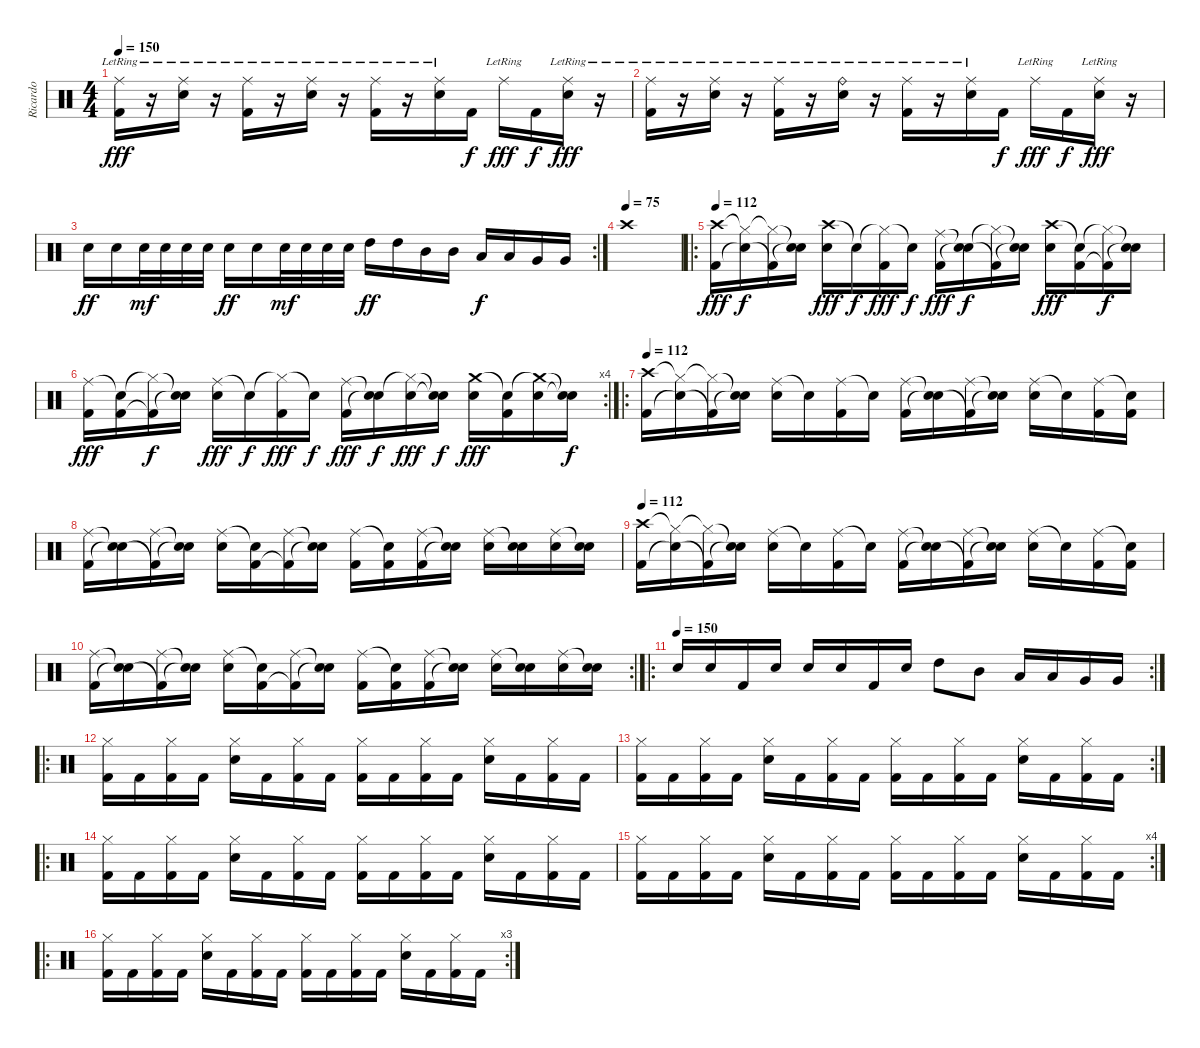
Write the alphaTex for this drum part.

\track ("Ricardo" "Ricardo") {instrument percussion}
\staff {score}
\articulation defaults
\ts (4 4)
\tempo 150
\clef neutral
\ks c
("Ride (middle)"{lr} "Kick (hit) 2").16{dy fff} r.16 ("Ride (middle)"{lr} "Snare (hit) 2").16 r.16 ("Ride (middle)"{lr} "Kick (hit) 2").16 r.16 ("Ride (middle)"{lr} "Snare (hit) 2").16 r.16 ("Ride (middle)"{lr} "Kick (hit) 2").16 r.16 ("Ride (middle)"{lr} "Snare (hit) 2").16 "Kick (hit) 2".16{dy f} "Ride (middle)"{lr}.16{dy fff} "Kick (hit) 2".16{dy f} ("Ride (middle)"{lr} "Snare (hit) 2").16{dy fff} r.16 |
("Ride (middle)"{lr} "Kick (hit) 2").16 r.16 ("Ride (middle)"{lr} "Snare (hit) 2").16 r.16 ("Ride (middle)"{lr} "Kick (hit) 2").16 r.16 ("Ride (bell)"{lr} "Snare (hit) 2").16 r.16 ("Ride (middle)"{lr} "Kick (hit) 2").16 r.16 ("Ride (middle)"{lr} "Snare (hit) 2").16 "Kick (hit) 2".16{dy f} "Ride (middle)"{lr}.16{dy fff} "Kick (hit) 2".16{dy f} ("Ride (middle)"{lr} "Snare (hit) 2").16{dy fff} r.16 |
\rc 2 "Snare (hit) 2".16{dy ff} "Snare (hit) 2".16 "Snare (hit) 2".32{dy mf} "Snare (hit) 2".32 "Snare (hit) 2".32 "Snare (hit) 2".32 "Snare (hit) 2".16{dy ff} "Snare (hit) 2".16 "Snare (hit) 2".32{dy mf} "Snare (hit) 2".32 "Snare (hit) 2".32 "Snare (hit) 2".32 "High Tom (hit)".16{dy ff} "High Tom (hit)".16 "Mid Tom (hit)".16 "Mid Tom (hit)".16 "Low Tom (hit)".16{dy f} "Low Tom (hit)".16 "Very Low Tom (hit)".16 "Very Low Tom (hit)".16
|
\tempo (75)
"Crash high (hit)".1 |
\ro
\tempo 112
("Crash high (hit)" "Kick (hit) 2").16{dy fff} ("Hi-Hat (closed)"{t} "Snare (hit)"{t}).16{dy f} ("Hi-Hat (closed)"{t} "Kick (hit) 2"{t}).16 ("Snare (hit)"{t} "Snare (hit)"{t}).16 ("Crash high (hit)" "Snare (hit) 2").16{dy fff} "Snare (hit)"{t}.16{dy f} ("Hi-Hat (closed)"{t} "Kick (hit) 2").16{dy fff} "Snare (hit)"{t}.16{dy f} ("Ride (middle)" "Kick (hit) 2").16{dy fff} ("Snare (hit)"{t} "Snare (hit)"{t}).16{dy f} ("Hi-Hat (closed)"{t} "Kick (hit) 2"{t}).16 ("Snare (hit)"{t} "Snare (hit)"{t}).16 ("Crash high (hit)" "Snare (hit) 2").16{dy fff} ("Snare (hit)"{t} "Kick (hit) 2").16 ("Hi-Hat (closed)"{t} "Kick (hit) 2"{t}).16{dy f} ("Snare (hit)"{t} "Snare (hit)"{t}).16 |
\rc 4
("Ride (middle)" "Kick (hit) 2").16{dy fff} ("Snare (hit)"{t} "Kick (hit) 2").16 ("Hi-Hat (closed)"{t} "Kick (hit) 2"{t}).16{dy f} ("Snare (hit)"{t} "Snare (hit)"{t}).16 ("Ride (middle)" "Snare (hit) 2").16{dy fff} "Snare (hit)"{t}.16{dy f} ("Hi-Hat (closed)"{t} "Kick (hit) 2").16{dy fff} "Snare (hit)"{t}.16{dy f} ("Ride (middle)" "Kick (hit) 2").16{dy fff} ("Snare (hit)"{t} "Snare (hit)"{t}).16{dy f} ("Hi-Hat (closed)"{t} "Snare (hit) 2").16{dy fff} ("Snare (hit)"{t} "Snare (hit)"{t}).16{dy f} ("Crash medium (hit)" "Snare (hit) 2").16{dy fff} ("Snare (hit)"{t} "Kick (hit) 2").16 ("Crash medium (hit)"{t} "Snare (hit) 2").16 ("Snare (hit)"{t} "Snare (hit)"{t}).16{dy f} |
\ro
\tempo 112
("Crash high (hit)" "Kick (hit) 2").16 ("Hi-Hat (closed)"{t} "Snare (hit)"{t}).16 ("Hi-Hat (closed)"{t} "Kick (hit) 2"{t}).16 ("Snare (hit)"{t} "Snare (hit)"{t}).16 ("Ride (middle)" "Snare (hit) 2").16 "Snare (hit)"{t}.16 ("Ride (middle)" "Kick (hit) 2").16 "Snare (hit)"{t}.16 ("Ride (middle)" "Kick (hit) 2").16 ("Snare (hit)"{t} "Snare (hit)"{t}).16 ("Ride (middle)" "Kick (hit) 2"{t}).16 ("Snare (hit)"{t} "Snare (hit)"{t}).16 ("Ride (middle)" "Snare (hit) 2").16 "Snare (hit)"{t}.16 ("Ride (middle)" "Kick (hit) 2").16 ("Snare (hit)"{t} "Kick (hit) 2").16 |
("Ride (middle)" "Kick (hit) 2").16 ("Snare (hit)"{t} "Snare (hit)"{t}).16 ("Ride (middle)" "Kick (hit) 2"{t}).16 ("Snare (hit)"{t} "Snare (hit)"{t}).16 ("Ride (middle)" "Snare (hit) 2").16 ("Snare (hit)"{t} "Kick (hit) 2").16 ("Ride (middle)" "Kick (hit) 2"{t}).16 ("Snare (hit)"{t} "Snare (hit)"{t}).16 ("Ride (middle)" "Kick (hit) 2").16 ("Snare (hit)"{t} "Kick (hit) 2").16 ("Ride (middle)" "Kick (hit) 2").16 ("Snare (hit)"{t} "Snare (hit)"{t}).16 ("Ride (middle)" "Snare (hit) 2").16 ("Snare (hit)"{t} "Snare (hit) 2").16 ("Ride (middle)" "Snare (hit) 2").16 ("Snare (hit)"{t} "Snare (hit) 2").16 |
\tempo 112
("Crash high (hit)" "Kick (hit) 2").16 ("Hi-Hat (closed)"{t} "Snare (hit)"{t}).16 ("Hi-Hat (closed)"{t} "Kick (hit) 2"{t}).16 ("Snare (hit)"{t} "Snare (hit)"{t}).16 ("Ride (middle)" "Snare (hit) 2").16 "Snare (hit)"{t}.16 ("Ride (middle)" "Kick (hit) 2").16 "Snare (hit)"{t}.16 ("Ride (middle)" "Kick (hit) 2").16 ("Snare (hit)"{t} "Snare (hit)"{t}).16 ("Ride (middle)" "Kick (hit) 2"{t}).16 ("Snare (hit)"{t} "Snare (hit)"{t}).16 ("Ride (middle)" "Snare (hit) 2").16 "Snare (hit)"{t}.16 ("Ride (middle)" "Kick (hit) 2").16 ("Snare (hit)"{t} "Kick (hit) 2").16 |
\rc 2
("Ride (middle)" "Kick (hit) 2").16 ("Snare (hit)"{t} "Snare (hit)"{t}).16 ("Ride (middle)" "Kick (hit) 2"{t}).16 ("Snare (hit)"{t} "Snare (hit)"{t}).16 ("Ride (middle)" "Snare (hit) 2").16 ("Snare (hit)"{t} "Kick (hit) 2").16 ("Ride (middle)" "Kick (hit) 2"{t}).16 ("Snare (hit)"{t} "Snare (hit)"{t}).16 ("Ride (middle)" "Kick (hit) 2").16 ("Snare (hit)"{t} "Kick (hit) 2").16 ("Ride (middle)" "Kick (hit) 2").16 ("Snare (hit)"{t} "Snare (hit)"{t}).16 ("Ride (middle)" "Snare (hit) 2").16 ("Snare (hit)"{t} "Snare (hit) 2").16 ("Ride (middle)" "Snare (hit) 2").16 ("Snare (hit)"{t} "Snare (hit) 2").16 |
\ro
\rc 2
\tempo (150)
"Snare (hit) 2".16 "Snare (hit) 2".16 "Kick (hit) 2".16 "Snare (hit) 2".16 "Snare (hit) 2".16 "Snare (hit) 2".16 "Kick (hit) 2".16 "Snare (hit) 2".16 "High Tom (hit)".8 "Mid Tom (hit)".8 "Low Tom (hit)".16 "Low Tom (hit)".16 "Very Low Tom (hit)".16 "Very Low Tom (hit)".16 |
\ro
("Hi-Hat (closed)" "Kick (hit) 2").16 "Kick (hit) 2".16 ("Hi-Hat (closed)" "Kick (hit) 2").16 "Kick (hit) 2".16 ("Hi-Hat (closed)" "Snare (hit) 2").16 "Kick (hit) 2".16 ("Hi-Hat (closed)" "Kick (hit) 2").16 "Kick (hit) 2".16 ("Hi-Hat (closed)" "Kick (hit) 2").16 "Kick (hit) 2".16 ("Hi-Hat (closed)" "Kick (hit) 2").16 "Kick (hit) 2".16 ("Hi-Hat (closed)" "Snare (hit) 2").16 "Kick (hit) 2".16 ("Hi-Hat (closed)" "Kick (hit) 2").16 "Kick (hit) 2".16 |
\rc 2
("Hi-Hat (closed)" "Kick (hit) 2").16 "Kick (hit) 2".16 ("Hi-Hat (closed)" "Kick (hit) 2").16 "Kick (hit) 2".16 ("Hi-Hat (closed)" "Snare (hit) 2").16 "Kick (hit) 2".16 ("Hi-Hat (closed)" "Kick (hit) 2").16 "Kick (hit) 2".16 ("Hi-Hat (closed)" "Kick (hit) 2").16 "Kick (hit) 2".16 ("Hi-Hat (closed)" "Kick (hit) 2").16 "Kick (hit) 2".16 ("Hi-Hat (closed)" "Snare (hit) 2").16 "Kick (hit) 2".16 ("Hi-Hat (closed)" "Kick (hit) 2").16 "Kick (hit) 2".16 |
\ro
("Hi-Hat (closed)" "Kick (hit) 2").16 "Kick (hit) 2".16 ("Hi-Hat (closed)" "Kick (hit) 2").16 "Kick (hit) 2".16 ("Hi-Hat (closed)" "Snare (hit) 2").16 "Kick (hit) 2".16 ("Hi-Hat (closed)" "Kick (hit) 2").16 "Kick (hit) 2".16 ("Hi-Hat (closed)" "Kick (hit) 2").16 "Kick (hit) 2".16 ("Hi-Hat (closed)" "Kick (hit) 2").16 "Kick (hit) 2".16 ("Hi-Hat (closed)" "Snare (hit) 2").16 "Kick (hit) 2".16 ("Hi-Hat (closed)" "Kick (hit) 2").16 "Kick (hit) 2".16 |
\rc 4
("Hi-Hat (closed)" "Kick (hit) 2").16 "Kick (hit) 2".16 ("Hi-Hat (closed)" "Kick (hit) 2").16 "Kick (hit) 2".16 ("Hi-Hat (closed)" "Snare (hit) 2").16 "Kick (hit) 2".16 ("Hi-Hat (closed)" "Kick (hit) 2").16 "Kick (hit) 2".16 ("Hi-Hat (closed)" "Kick (hit) 2").16 "Kick (hit) 2".16 ("Hi-Hat (closed)" "Kick (hit) 2").16 "Kick (hit) 2".16 ("Hi-Hat (closed)" "Snare (hit) 2").16 "Kick (hit) 2".16 ("Hi-Hat (closed)" "Kick (hit) 2").16 "Kick (hit) 2".16 |
\ro
\rc 3
("Hi-Hat (closed)" "Kick (hit) 2").16 "Kick (hit) 2".16 ("Hi-Hat (closed)" "Kick (hit) 2").16 "Kick (hit) 2".16 ("Hi-Hat (closed)" "Snare (hit) 2").16 "Kick (hit) 2".16 ("Hi-Hat (closed)" "Kick (hit) 2").16 "Kick (hit) 2".16 ("Hi-Hat (closed)" "Kick (hit) 2").16 "Kick (hit) 2".16 ("Hi-Hat (closed)" "Kick (hit) 2").16 "Kick (hit) 2".16 ("Hi-Hat (closed)" "Snare (hit) 2").16 "Kick (hit) 2".16 ("Hi-Hat (closed)" "Kick (hit) 2").16 "Kick (hit) 2".16
